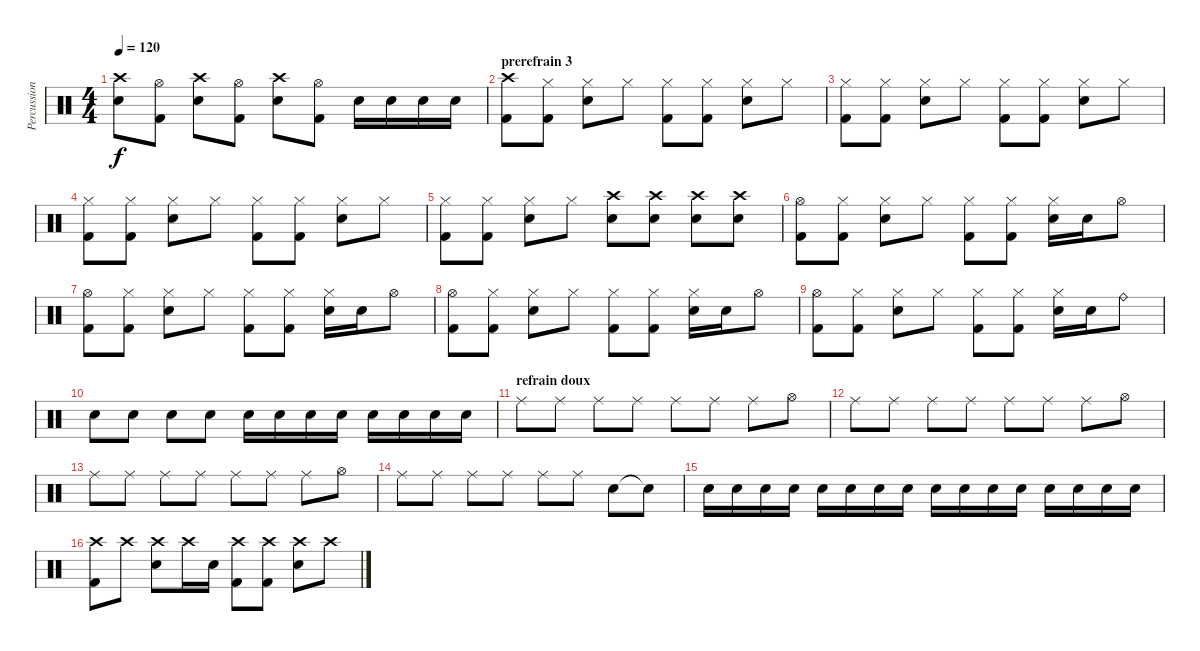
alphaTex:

\track ("Percussions" "Percussion") {instrument percussion}
\staff {score}
\articulation defaults
\ts (4 4)
\tempo 120
\clef neutral
\ks c
("Crash high (hit)" "Snare (hit) 2").8{dy f} ("Hi-Hat (open)" "Kick (hit) 2").8 ("Crash high (hit)" "Snare (hit) 2").8 ("Hi-Hat (open)" "Kick (hit) 2").8 ("Crash high (hit)" "Snare (hit) 2").8 ("Hi-Hat (open)" "Kick (hit) 2").8 "Snare (hit) 2".16 "Snare (hit) 2".16 "Snare (hit) 2".16 "Snare (hit) 2".16 |
\section ("" "prerefrain 3")
("Crash high (hit)" "Kick (hit) 2").8 ("Hi-Hat (closed)" "Kick (hit) 2").8 ("Hi-Hat (closed)" "Snare (hit) 2").8 "Hi-Hat (closed)".8 ("Hi-Hat (closed)" "Kick (hit) 2").8 ("Hi-Hat (closed)" "Kick (hit) 2").8 ("Hi-Hat (closed)" "Snare (hit) 2").8 "Hi-Hat (closed)".8 |
("Hi-Hat (closed)" "Kick (hit) 2").8 ("Hi-Hat (closed)" "Kick (hit) 2").8 ("Hi-Hat (closed)" "Snare (hit) 2").8 "Hi-Hat (closed)".8 ("Hi-Hat (closed)" "Kick (hit) 2").8 ("Hi-Hat (closed)" "Kick (hit) 2").8 ("Hi-Hat (closed)" "Snare (hit) 2").8 "Hi-Hat (closed)".8 |
("Hi-Hat (closed)" "Kick (hit) 2").8 ("Hi-Hat (closed)" "Kick (hit) 2").8 ("Hi-Hat (closed)" "Snare (hit) 2").8 "Hi-Hat (closed)".8 ("Hi-Hat (closed)" "Kick (hit) 2").8 ("Hi-Hat (closed)" "Kick (hit) 2").8 ("Hi-Hat (closed)" "Snare (hit) 2").8 "Hi-Hat (closed)".8 |
("Hi-Hat (closed)" "Kick (hit) 2").8 ("Hi-Hat (closed)" "Kick (hit) 2").8 ("Hi-Hat (closed)" "Snare (hit) 2").8 "Hi-Hat (closed)".8 ("Crash high (hit)" "Snare (hit) 2").8 ("Crash high (hit)" "Snare (hit) 2").8 ("Crash high (hit)" "Snare (hit) 2").8 ("Crash high (hit)" "Snare (hit) 2").8 |
("Hi-Hat (open)" "Kick (hit) 2").8 ("Hi-Hat (closed)" "Kick (hit) 2").8 ("Hi-Hat (closed)" "Snare (hit) 2").8 "Hi-Hat (closed)".8 ("Hi-Hat (closed)" "Kick (hit) 2").8 ("Hi-Hat (closed)" "Kick (hit) 2").8 ("Hi-Hat (closed)" "Snare (hit) 2").16 "Snare (hit) 2".16 "Hi-Hat (open)".8 |
("Hi-Hat (open)" "Kick (hit) 2").8 ("Hi-Hat (closed)" "Kick (hit) 2").8 ("Hi-Hat (closed)" "Snare (hit) 2").8 "Hi-Hat (closed)".8 ("Hi-Hat (closed)" "Kick (hit) 2").8 ("Hi-Hat (closed)" "Kick (hit) 2").8 ("Hi-Hat (closed)" "Snare (hit) 2").16 "Snare (hit) 2".16 "Hi-Hat (open)".8 |
("Hi-Hat (open)" "Kick (hit) 2").8 ("Hi-Hat (closed)" "Kick (hit) 2").8 ("Hi-Hat (closed)" "Snare (hit) 2").8 "Hi-Hat (closed)".8 ("Hi-Hat (closed)" "Kick (hit) 2").8 ("Hi-Hat (closed)" "Kick (hit) 2").8 ("Hi-Hat (closed)" "Snare (hit) 2").16 "Snare (hit) 2".16 "Hi-Hat (open)".8 |
("Hi-Hat (open)" "Kick (hit) 2").8 ("Hi-Hat (closed)" "Kick (hit) 2").8 ("Hi-Hat (closed)" "Snare (hit) 2").8 "Hi-Hat (closed)".8 ("Hi-Hat (closed)" "Kick (hit) 2").8 ("Hi-Hat (closed)" "Kick (hit) 2").8 ("Hi-Hat (closed)" "Snare (hit) 2").16 "Snare (hit) 2".16 "Ride (bell)".8 |
"Snare (hit) 2".8 "Snare (hit) 2".8 "Snare (hit) 2".8 "Snare (hit) 2".8 "Snare (hit) 2".16 "Snare (hit) 2".16 "Snare (hit) 2".16 "Snare (hit) 2".16 "Snare (hit) 2".16 "Snare (hit) 2".16 "Snare (hit) 2".16 "Snare (hit) 2".16 |
\section ("" "refrain doux")
"Ride (middle)".8 "Ride (middle)".8 "Ride (middle)".8 "Ride (middle)".8 "Ride (middle)".8 "Ride (middle)".8 "Ride (middle)".8 "Hi-Hat (open)".8 |
"Ride (middle)".8 "Ride (middle)".8 "Ride (middle)".8 "Ride (middle)".8 "Ride (middle)".8 "Ride (middle)".8 "Ride (middle)".8 "Hi-Hat (open)".8 |
"Ride (middle)".8 "Ride (middle)".8 "Ride (middle)".8 "Ride (middle)".8 "Ride (middle)".8 "Ride (middle)".8 "Ride (middle)".8 "Hi-Hat (open)".8 |
"Ride (middle)".8 "Ride (middle)".8 "Ride (middle)".8 "Ride (middle)".8 "Ride (middle)".8 "Ride (middle)".8 "Snare (hit) 2".8 "Snare (hit)"{t}.8{volume 7} |
"Snare (hit) 2".16{volume 12} "Snare (hit) 2".16 "Snare (hit) 2".16 "Snare (hit) 2".16 "Snare (hit) 2".16 "Snare (hit) 2".16 "Snare (hit) 2".16 "Snare (hit) 2".16 "Snare (hit) 2".16 "Snare (hit) 2".16 "Snare (hit) 2".16 "Snare (hit) 2".16 "Snare (hit) 2".16 "Snare (hit) 2".16 "Snare (hit) 2".16 "Snare (hit) 2".16 |
("Crash high (hit)" "Kick (hit) 2").8 "Crash high (hit)".8 ("Crash high (hit)" "Snare (hit) 2").8 "Crash high (hit)".16 "Snare (hit) 2".16 ("Crash high (hit)" "Kick (hit) 2").8 ("Crash high (hit)" "Kick (hit) 2").8 ("Crash high (hit)" "Snare (hit) 2").8 "Crash high (hit)".8
